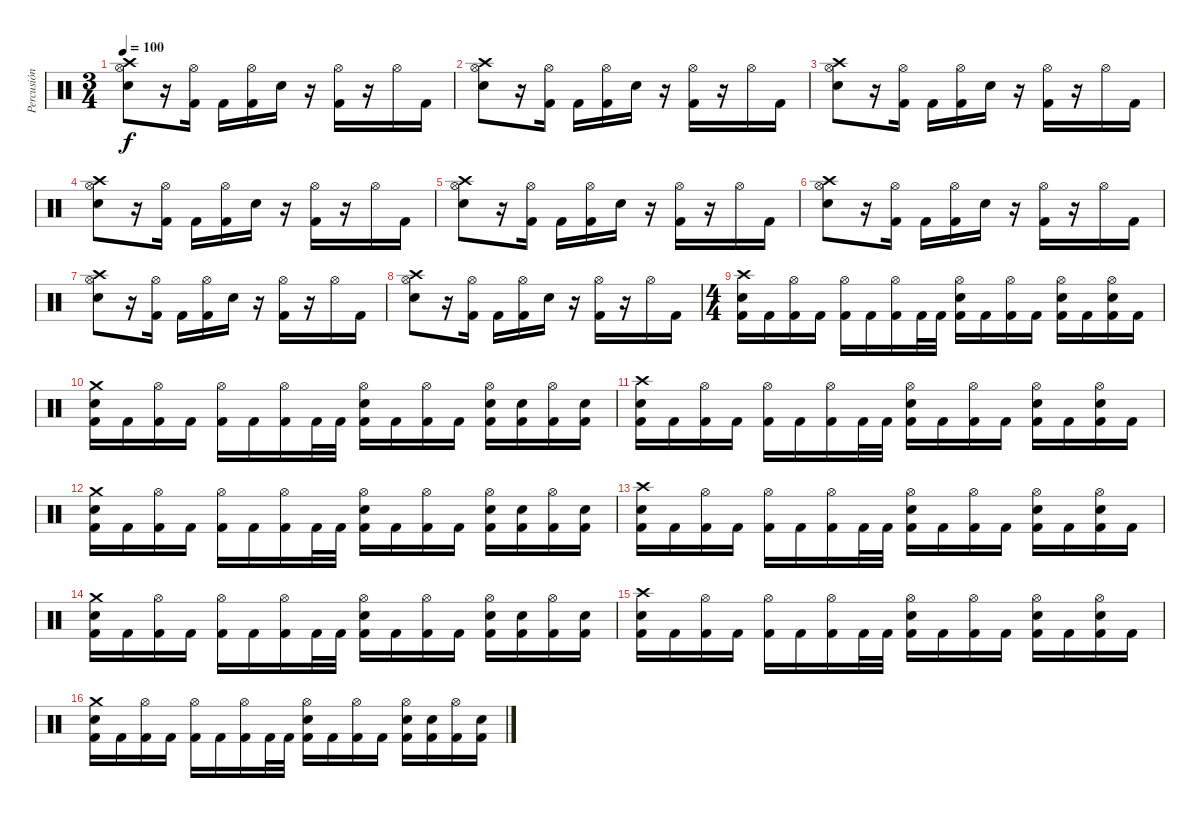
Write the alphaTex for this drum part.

\track ("Percusión" "Percusión") {instrument percussion}
\staff {score}
\articulation defaults
\ts (3 4)
\tempo 100
\clef neutral
\ks c
("Crash high (hit)" "Hi-Hat (open)" "Electric Snare (hit)").8{dy f} r.16 ("Hi-Hat (open)" "Kick (hit) 2").16 "Kick (hit) 2".16 ("Hi-Hat (open)" "Kick (hit) 2").16 "Electric Snare (hit)".16 r.16 ("Hi-Hat (open)" "Kick (hit) 2").16 r.16 "Hi-Hat (open)".16 "Kick (hit) 2".16 |
("Crash high (hit)" "Hi-Hat (open)" "Electric Snare (hit)").8 r.16 ("Hi-Hat (open)" "Kick (hit) 2").16 "Kick (hit) 2".16 ("Hi-Hat (open)" "Kick (hit) 2").16 "Electric Snare (hit)".16 r.16 ("Hi-Hat (open)" "Kick (hit) 2").16 r.16 "Hi-Hat (open)".16 "Kick (hit) 2".16 |
("Crash high (hit)" "Hi-Hat (open)" "Electric Snare (hit)").8 r.16 ("Hi-Hat (open)" "Kick (hit) 2").16 "Kick (hit) 2".16 ("Hi-Hat (open)" "Kick (hit) 2").16 "Electric Snare (hit)".16 r.16 ("Hi-Hat (open)" "Kick (hit) 2").16 r.16 "Hi-Hat (open)".16 "Kick (hit) 2".16 |
("Crash high (hit)" "Hi-Hat (open)" "Electric Snare (hit)").8 r.16 ("Hi-Hat (open)" "Kick (hit) 2").16 "Kick (hit) 2".16 ("Hi-Hat (open)" "Kick (hit) 2").16 "Electric Snare (hit)".16 r.16 ("Hi-Hat (open)" "Kick (hit) 2").16 r.16 "Hi-Hat (open)".16 "Kick (hit) 2".16 |
("Crash high (hit)" "Hi-Hat (open)" "Electric Snare (hit)").8 r.16 ("Hi-Hat (open)" "Kick (hit) 2").16 "Kick (hit) 2".16 ("Hi-Hat (open)" "Kick (hit) 2").16 "Electric Snare (hit)".16 r.16 ("Hi-Hat (open)" "Kick (hit) 2").16 r.16 "Hi-Hat (open)".16 "Kick (hit) 2".16 |
("Crash high (hit)" "Hi-Hat (open)" "Electric Snare (hit)").8 r.16 ("Hi-Hat (open)" "Kick (hit) 2").16 "Kick (hit) 2".16 ("Hi-Hat (open)" "Kick (hit) 2").16 "Electric Snare (hit)".16 r.16 ("Hi-Hat (open)" "Kick (hit) 2").16 r.16 "Hi-Hat (open)".16 "Kick (hit) 2".16 |
("Crash high (hit)" "Hi-Hat (open)" "Electric Snare (hit)").8 r.16 ("Hi-Hat (open)" "Kick (hit) 2").16 "Kick (hit) 2".16 ("Hi-Hat (open)" "Kick (hit) 2").16 "Electric Snare (hit)".16 r.16 ("Hi-Hat (open)" "Kick (hit) 2").16 r.16 "Hi-Hat (open)".16 "Kick (hit) 2".16 |
("Crash high (hit)" "Hi-Hat (open)" "Electric Snare (hit)").8 r.16 ("Hi-Hat (open)" "Kick (hit) 2").16 "Kick (hit) 2".16 ("Hi-Hat (open)" "Kick (hit) 2").16 "Electric Snare (hit)".16 r.16 ("Hi-Hat (open)" "Kick (hit) 2").16 r.16 "Hi-Hat (open)".16 "Kick (hit) 2".16 |
\ts (4 4)
("Crash high (hit)" "Electric Snare (hit)" "Kick (hit) 2").16 "Kick (hit) 2".16 ("Hi-Hat (open)" "Kick (hit) 2").16 "Kick (hit) 2".16 ("Hi-Hat (open)" "Kick (hit) 2").16 "Kick (hit) 2".16 ("Hi-Hat (open)" "Kick (hit) 2").16 "Kick (hit) 2".32 "Kick (hit) 2".32 ("Hi-Hat (open)" "Electric Snare (hit)" "Kick (hit) 2").16 "Kick (hit) 2".16 ("Hi-Hat (open)" "Kick (hit) 2").16 "Kick (hit) 2".16 ("Hi-Hat (open)" "Electric Snare (hit)" "Kick (hit) 2").16 "Kick (hit) 2".16 ("Hi-Hat (open)" "Electric Snare (hit)" "Kick (hit) 2").16 "Kick (hit) 2".16 |
("Crash medium (hit)" "Electric Snare (hit)" "Kick (hit) 2").16 "Kick (hit) 2".16 ("Hi-Hat (open)" "Kick (hit) 2").16 "Kick (hit) 2".16 ("Hi-Hat (open)" "Kick (hit) 2").16 "Kick (hit) 2".16 ("Hi-Hat (open)" "Kick (hit) 2").16 "Kick (hit) 2".32 "Kick (hit) 2".32 ("Hi-Hat (open)" "Electric Snare (hit)" "Kick (hit) 2").16 "Kick (hit) 2".16 ("Hi-Hat (open)" "Kick (hit) 2").16 "Kick (hit) 2".16 ("Hi-Hat (open)" "Electric Snare (hit)" "Kick (hit) 2").16 ("Electric Snare (hit)" "Kick (hit) 2").16 ("Hi-Hat (open)" "Kick (hit) 2").16 ("Electric Snare (hit)" "Kick (hit) 2").16 |
("Crash high (hit)" "Electric Snare (hit)" "Kick (hit) 2").16 "Kick (hit) 2".16 ("Hi-Hat (open)" "Kick (hit) 2").16 "Kick (hit) 2".16 ("Hi-Hat (open)" "Kick (hit) 2").16 "Kick (hit) 2".16 ("Hi-Hat (open)" "Kick (hit) 2").16 "Kick (hit) 2".32 "Kick (hit) 2".32 ("Hi-Hat (open)" "Electric Snare (hit)" "Kick (hit) 2").16 "Kick (hit) 2".16 ("Hi-Hat (open)" "Kick (hit) 2").16 "Kick (hit) 2".16 ("Hi-Hat (open)" "Electric Snare (hit)" "Kick (hit) 2").16 "Kick (hit) 2".16 ("Hi-Hat (open)" "Electric Snare (hit)" "Kick (hit) 2").16 "Kick (hit) 2".16 |
("Crash medium (hit)" "Electric Snare (hit)" "Kick (hit) 2").16 "Kick (hit) 2".16 ("Hi-Hat (open)" "Kick (hit) 2").16 "Kick (hit) 2".16 ("Hi-Hat (open)" "Kick (hit) 2").16 "Kick (hit) 2".16 ("Hi-Hat (open)" "Kick (hit) 2").16 "Kick (hit) 2".32 "Kick (hit) 2".32 ("Hi-Hat (open)" "Electric Snare (hit)" "Kick (hit) 2").16 "Kick (hit) 2".16 ("Hi-Hat (open)" "Kick (hit) 2").16 "Kick (hit) 2".16 ("Hi-Hat (open)" "Electric Snare (hit)" "Kick (hit) 2").16 ("Electric Snare (hit)" "Kick (hit) 2").16 ("Hi-Hat (open)" "Kick (hit) 2").16 ("Electric Snare (hit)" "Kick (hit) 2").16 |
("Crash high (hit)" "Electric Snare (hit)" "Kick (hit) 2").16 "Kick (hit) 2".16 ("Hi-Hat (open)" "Kick (hit) 2").16 "Kick (hit) 2".16 ("Hi-Hat (open)" "Kick (hit) 2").16 "Kick (hit) 2".16 ("Hi-Hat (open)" "Kick (hit) 2").16 "Kick (hit) 2".32 "Kick (hit) 2".32 ("Hi-Hat (open)" "Electric Snare (hit)" "Kick (hit) 2").16 "Kick (hit) 2".16 ("Hi-Hat (open)" "Kick (hit) 2").16 "Kick (hit) 2".16 ("Hi-Hat (open)" "Electric Snare (hit)" "Kick (hit) 2").16 "Kick (hit) 2".16 ("Hi-Hat (open)" "Electric Snare (hit)" "Kick (hit) 2").16 "Kick (hit) 2".16 |
("Crash medium (hit)" "Electric Snare (hit)" "Kick (hit) 2").16 "Kick (hit) 2".16 ("Hi-Hat (open)" "Kick (hit) 2").16 "Kick (hit) 2".16 ("Hi-Hat (open)" "Kick (hit) 2").16 "Kick (hit) 2".16 ("Hi-Hat (open)" "Kick (hit) 2").16 "Kick (hit) 2".32 "Kick (hit) 2".32 ("Hi-Hat (open)" "Electric Snare (hit)" "Kick (hit) 2").16 "Kick (hit) 2".16 ("Hi-Hat (open)" "Kick (hit) 2").16 "Kick (hit) 2".16 ("Hi-Hat (open)" "Electric Snare (hit)" "Kick (hit) 2").16 ("Electric Snare (hit)" "Kick (hit) 2").16 ("Hi-Hat (open)" "Kick (hit) 2").16 ("Electric Snare (hit)" "Kick (hit) 2").16 |
("Crash high (hit)" "Electric Snare (hit)" "Kick (hit) 2").16 "Kick (hit) 2".16 ("Hi-Hat (open)" "Kick (hit) 2").16 "Kick (hit) 2".16 ("Hi-Hat (open)" "Kick (hit) 2").16 "Kick (hit) 2".16 ("Hi-Hat (open)" "Kick (hit) 2").16 "Kick (hit) 2".32 "Kick (hit) 2".32 ("Hi-Hat (open)" "Electric Snare (hit)" "Kick (hit) 2").16 "Kick (hit) 2".16 ("Hi-Hat (open)" "Kick (hit) 2").16 "Kick (hit) 2".16 ("Hi-Hat (open)" "Electric Snare (hit)" "Kick (hit) 2").16 "Kick (hit) 2".16 ("Hi-Hat (open)" "Electric Snare (hit)" "Kick (hit) 2").16 "Kick (hit) 2".16 |
("Crash medium (hit)" "Electric Snare (hit)" "Kick (hit) 2").16 "Kick (hit) 2".16 ("Hi-Hat (open)" "Kick (hit) 2").16 "Kick (hit) 2".16 ("Hi-Hat (open)" "Kick (hit) 2").16 "Kick (hit) 2".16 ("Hi-Hat (open)" "Kick (hit) 2").16 "Kick (hit) 2".32 "Kick (hit) 2".32 ("Hi-Hat (open)" "Electric Snare (hit)" "Kick (hit) 2").16 "Kick (hit) 2".16 ("Hi-Hat (open)" "Kick (hit) 2").16 "Kick (hit) 2".16 ("Hi-Hat (open)" "Electric Snare (hit)" "Kick (hit) 2").16 ("Electric Snare (hit)" "Kick (hit) 2").16 ("Hi-Hat (open)" "Kick (hit) 2").16 ("Electric Snare (hit)" "Kick (hit) 2").16
